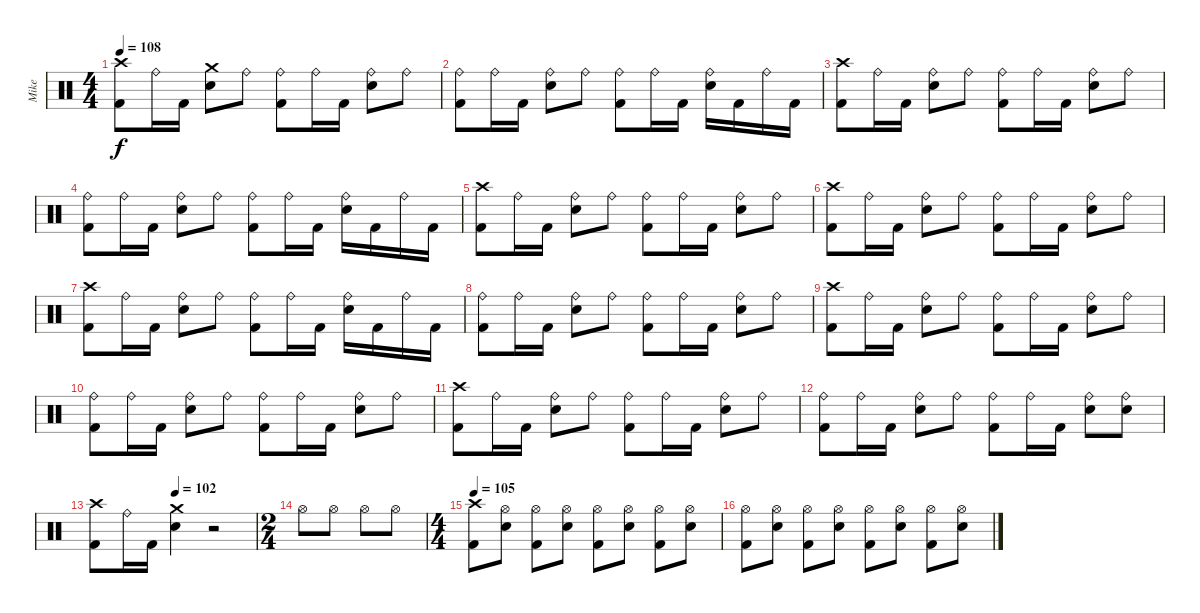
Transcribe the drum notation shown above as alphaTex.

\track ("Mike" "Mike") {instrument percussion}
\staff {score}
\articulation defaults
\ts (4 4)
\tempo 108
\clef neutral
\ks c
("Crash high (hit)" "Kick (hit) 2").8{dy f} "Ride (bell)".16 "Kick (hit) 2".16 ("Crash medium (hit)" "Snare (hit) 2").8 "Ride (bell)".8 ("Ride (bell)" "Kick (hit) 2").8 "Ride (bell)".16 "Kick (hit) 2".16 ("Ride (bell)" "Snare (hit) 2").8 "Ride (bell)".8 |
("Ride (bell)" "Kick (hit) 2").8 "Ride (bell)".16 "Kick (hit) 2".16 ("Ride (bell)" "Snare (hit) 2").8 "Ride (bell)".8 ("Ride (bell)" "Kick (hit) 2").8 "Ride (bell)".16 "Kick (hit) 2".16 ("Ride (bell)" "Snare (hit) 2").16 "Kick (hit) 2".16 "Ride (bell)".16 "Kick (hit) 2".16 |
("Crash high (hit)" "Kick (hit) 2").8 "Ride (bell)".16 "Kick (hit) 2".16 ("Ride (bell)" "Snare (hit) 2").8 "Ride (bell)".8 ("Ride (bell)" "Kick (hit) 2").8 "Ride (bell)".16 "Kick (hit) 2".16 ("Ride (bell)" "Snare (hit) 2").8 "Ride (bell)".8 |
("Ride (bell)" "Kick (hit) 2").8 "Ride (bell)".16 "Kick (hit) 2".16 ("Ride (bell)" "Snare (hit) 2").8 "Ride (bell)".8 ("Ride (bell)" "Kick (hit) 2").8 "Ride (bell)".16 "Kick (hit) 2".16 ("Ride (bell)" "Snare (hit) 2").16 "Kick (hit) 2".16 "Ride (bell)".16 "Kick (hit) 2".16 |
("Crash high (hit)" "Kick (hit) 2").8 "Ride (bell)".16 "Kick (hit) 2".16 ("Ride (bell)" "Snare (hit) 2").8 "Ride (bell)".8 ("Ride (bell)" "Kick (hit) 2").8 "Ride (bell)".16 "Kick (hit) 2".16 ("Ride (bell)" "Snare (hit) 2").8 "Ride (bell)".8 |
("Crash high (hit)" "Kick (hit) 2").8 "Ride (bell)".16 "Kick (hit) 2".16 ("Ride (bell)" "Snare (hit) 2").8 "Ride (bell)".8 ("Ride (bell)" "Kick (hit) 2").8 "Ride (bell)".16 "Kick (hit) 2".16 ("Ride (bell)" "Snare (hit) 2").8 "Ride (bell)".8 |
("Crash high (hit)" "Kick (hit) 2").8 "Ride (bell)".16 "Kick (hit) 2".16 ("Ride (bell)" "Snare (hit) 2").8 "Ride (bell)".8 ("Ride (bell)" "Kick (hit) 2").8 "Ride (bell)".16 "Kick (hit) 2".16 ("Ride (bell)" "Snare (hit) 2").16 "Kick (hit) 2".16 "Ride (bell)".16 "Kick (hit) 2".16 |
("Ride (bell)" "Kick (hit) 2").8 "Ride (bell)".16 "Kick (hit) 2".16 ("Ride (bell)" "Snare (hit) 2").8 "Ride (bell)".8 ("Ride (bell)" "Kick (hit) 2").8 "Ride (bell)".16 "Kick (hit) 2".16 ("Ride (bell)" "Snare (hit) 2").8 "Ride (bell)".8 |
("Crash high (hit)" "Kick (hit) 2").8 "Ride (bell)".16 "Kick (hit) 2".16 ("Ride (bell)" "Snare (hit) 2").8 "Ride (bell)".8 ("Ride (bell)" "Kick (hit) 2").8 "Ride (bell)".16 "Kick (hit) 2".16 ("Ride (bell)" "Snare (hit) 2").8 "Ride (bell)".8 |
("Ride (bell)" "Kick (hit) 2").8 "Ride (bell)".16 "Kick (hit) 2".16 ("Ride (bell)" "Snare (hit) 2").8 "Ride (bell)".8 ("Ride (bell)" "Kick (hit) 2").8 "Ride (bell)".16 "Kick (hit) 2".16 ("Ride (bell)" "Snare (hit) 2").8 "Ride (bell)".8 |
("Crash high (hit)" "Kick (hit) 2").8 "Ride (bell)".16 "Kick (hit) 2".16 ("Ride (bell)" "Snare (hit) 2").8 "Ride (bell)".8 ("Ride (bell)" "Kick (hit) 2").8 "Ride (bell)".16 "Kick (hit) 2".16 ("Ride (bell)" "Snare (hit) 2").8 "Ride (bell)".8 |
("Ride (bell)" "Kick (hit) 2").8 "Ride (bell)".16 "Kick (hit) 2".16 ("Ride (bell)" "Snare (hit) 2").8 "Ride (bell)".8 ("Ride (bell)" "Kick (hit) 2").8 "Ride (bell)".16 "Kick (hit) 2".16 ("Ride (bell)" "Snare (hit) 2").8 ("Ride (bell)" "Snare (hit) 2").8 |
\tempo (102 0.5)
("Crash high (hit)" "Kick (hit) 2").8 "Ride (bell)".16 "Kick (hit) 2".16 ("Crash medium (hit)" "Snare (hit) 2").4 r.2 |
\ts (2 4)
"Hi-Hat (open)".8 "Hi-Hat (open)".8 "Hi-Hat (open)".8 "Hi-Hat (open)".8 |
\ts (4 4)
\tempo 105
("Crash high (hit)" "Kick (hit) 2").8 ("Hi-Hat (open)" "Snare (hit) 2").8 ("Hi-Hat (open)" "Kick (hit) 2").8 ("Hi-Hat (open)" "Snare (hit) 2").8 ("Hi-Hat (open)" "Kick (hit) 2").8 ("Hi-Hat (open)" "Snare (hit) 2").8 ("Hi-Hat (open)" "Kick (hit) 2").8 ("Hi-Hat (open)" "Snare (hit) 2").8 |
("Hi-Hat (open)" "Kick (hit) 2").8 ("Hi-Hat (open)" "Snare (hit) 2").8 ("Hi-Hat (open)" "Kick (hit) 2").8 ("Hi-Hat (open)" "Snare (hit) 2").8 ("Hi-Hat (open)" "Kick (hit) 2").8 ("Hi-Hat (open)" "Snare (hit) 2").8 ("Hi-Hat (open)" "Kick (hit) 2").8 ("Hi-Hat (open)" "Snare (hit) 2").8
